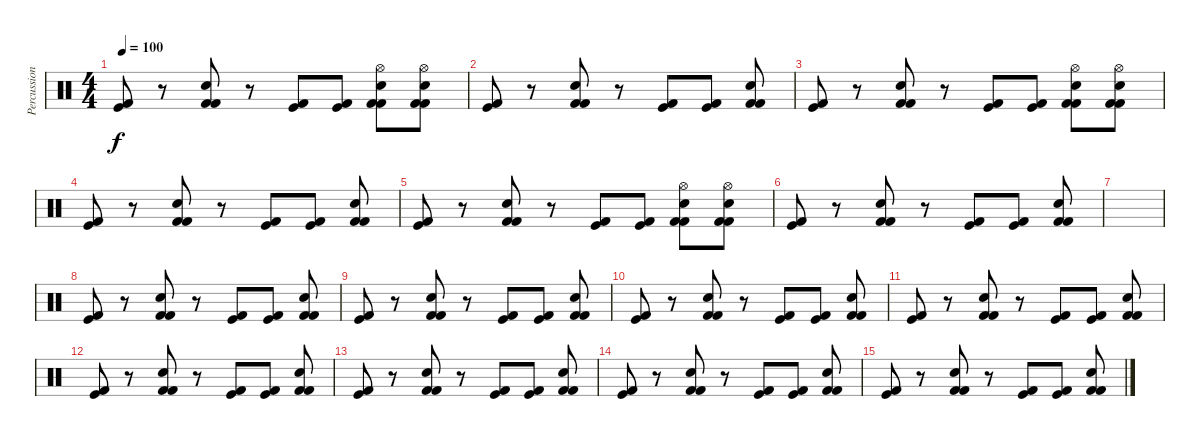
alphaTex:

\track ("Percussions" "Percussion") {instrument percussion}
\staff {score}
\articulation defaults
\ts (4 4)
\tempo 100
\clef neutral
\ks c
("Kick (hit)" "Kick (hit) 2").8{dy f} r.8 ("Kick (hit) 2" "Electric Snare (hit)" "Kick (hit) 2").8 r.8 ("Kick (hit)" "Kick (hit) 2").8 ("Kick (hit)" "Kick (hit) 2").8 ("Hi-Hat (open)" "Kick (hit) 2" "Electric Snare (hit)" "Kick (hit) 2").8 ("Hi-Hat (open)" "Kick (hit) 2" "Electric Snare (hit)" "Kick (hit) 2").8 |
("Kick (hit)" "Kick (hit) 2").8 r.8 ("Kick (hit) 2" "Electric Snare (hit)" "Kick (hit) 2").8 r.8 ("Kick (hit)" "Kick (hit) 2").8 ("Kick (hit)" "Kick (hit) 2").8 ("Kick (hit) 2" "Electric Snare (hit)" "Kick (hit) 2").8 |
("Kick (hit)" "Kick (hit) 2").8 r.8 ("Kick (hit) 2" "Electric Snare (hit)" "Kick (hit) 2").8 r.8 ("Kick (hit)" "Kick (hit) 2").8 ("Kick (hit)" "Kick (hit) 2").8 ("Hi-Hat (open)" "Kick (hit) 2" "Electric Snare (hit)" "Kick (hit) 2").8 ("Hi-Hat (open)" "Kick (hit) 2" "Electric Snare (hit)" "Kick (hit) 2").8 |
("Kick (hit)" "Kick (hit) 2").8 r.8 ("Kick (hit) 2" "Electric Snare (hit)" "Kick (hit) 2").8 r.8 ("Kick (hit)" "Kick (hit) 2").8 ("Kick (hit)" "Kick (hit) 2").8 ("Kick (hit) 2" "Electric Snare (hit)" "Kick (hit) 2").8 |
("Kick (hit)" "Kick (hit) 2").8 r.8 ("Kick (hit) 2" "Electric Snare (hit)" "Kick (hit) 2").8 r.8 ("Kick (hit)" "Kick (hit) 2").8 ("Kick (hit)" "Kick (hit) 2").8 ("Hi-Hat (open)" "Kick (hit) 2" "Electric Snare (hit)" "Kick (hit) 2").8 ("Hi-Hat (open)" "Kick (hit) 2" "Electric Snare (hit)" "Kick (hit) 2").8 |
("Kick (hit)" "Kick (hit) 2").8 r.8 ("Kick (hit) 2" "Electric Snare (hit)" "Kick (hit) 2").8 r.8 ("Kick (hit)" "Kick (hit) 2").8 ("Kick (hit)" "Kick (hit) 2").8 ("Kick (hit) 2" "Electric Snare (hit)" "Kick (hit) 2").8 |
|
("Kick (hit)" "Kick (hit) 2").8 r.8 ("Kick (hit) 2" "Electric Snare (hit)" "Kick (hit) 2").8 r.8 ("Kick (hit)" "Kick (hit) 2").8 ("Kick (hit)" "Kick (hit) 2").8 ("Kick (hit) 2" "Electric Snare (hit)" "Kick (hit) 2").8 |
("Kick (hit)" "Kick (hit) 2").8 r.8 ("Kick (hit) 2" "Electric Snare (hit)" "Kick (hit) 2").8 r.8 ("Kick (hit)" "Kick (hit) 2").8 ("Kick (hit)" "Kick (hit) 2").8 ("Kick (hit) 2" "Electric Snare (hit)" "Kick (hit) 2").8 |
("Kick (hit)" "Kick (hit) 2").8 r.8 ("Kick (hit) 2" "Electric Snare (hit)" "Kick (hit) 2").8 r.8 ("Kick (hit)" "Kick (hit) 2").8 ("Kick (hit)" "Kick (hit) 2").8 ("Kick (hit) 2" "Electric Snare (hit)" "Kick (hit) 2").8 |
("Kick (hit)" "Kick (hit) 2").8 r.8 ("Kick (hit) 2" "Electric Snare (hit)" "Kick (hit) 2").8 r.8 ("Kick (hit)" "Kick (hit) 2").8 ("Kick (hit)" "Kick (hit) 2").8 ("Kick (hit) 2" "Electric Snare (hit)" "Kick (hit) 2").8 |
("Kick (hit)" "Kick (hit) 2").8 r.8 ("Kick (hit) 2" "Electric Snare (hit)" "Kick (hit) 2").8 r.8 ("Kick (hit)" "Kick (hit) 2").8 ("Kick (hit)" "Kick (hit) 2").8 ("Kick (hit) 2" "Electric Snare (hit)" "Kick (hit) 2").8 |
("Kick (hit)" "Kick (hit) 2").8 r.8 ("Kick (hit) 2" "Electric Snare (hit)" "Kick (hit) 2").8 r.8 ("Kick (hit)" "Kick (hit) 2").8 ("Kick (hit)" "Kick (hit) 2").8 ("Kick (hit) 2" "Electric Snare (hit)" "Kick (hit) 2").8 |
("Kick (hit)" "Kick (hit) 2").8 r.8 ("Kick (hit) 2" "Electric Snare (hit)" "Kick (hit) 2").8 r.8 ("Kick (hit)" "Kick (hit) 2").8 ("Kick (hit)" "Kick (hit) 2").8 ("Kick (hit) 2" "Electric Snare (hit)" "Kick (hit) 2").8 |
("Kick (hit)" "Kick (hit) 2").8 r.8 ("Kick (hit) 2" "Electric Snare (hit)" "Kick (hit) 2").8 r.8 ("Kick (hit)" "Kick (hit) 2").8 ("Kick (hit)" "Kick (hit) 2").8 ("Kick (hit) 2" "Electric Snare (hit)" "Kick (hit) 2").8
